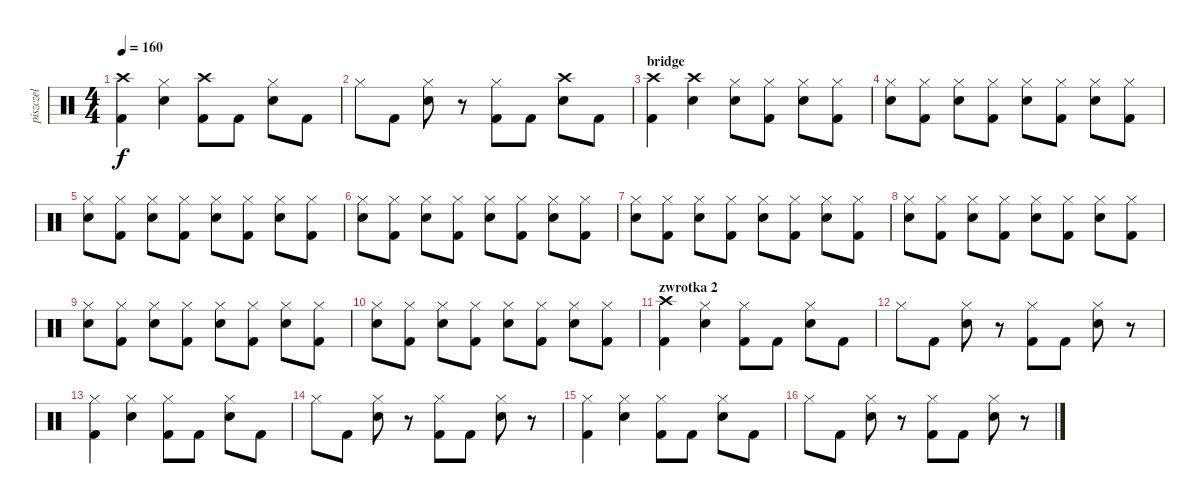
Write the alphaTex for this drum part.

\track ("piszczel" "piszczel") {instrument percussion}
\staff {score}
\articulation defaults
\ts (4 4)
\tempo 160
\clef neutral
\ks c
("Crash high (hit)" "Kick (hit) 2").4{dy f} ("Hi-Hat (closed)" "Snare (hit) 2").4 ("Crash high (hit)" "Kick (hit) 2").8 "Kick (hit) 2".8 ("Hi-Hat (closed)" "Snare (hit) 2").8 "Kick (hit) 2".8 |
"Hi-Hat (closed)".8 "Kick (hit) 2".8 ("Hi-Hat (closed)" "Snare (hit) 2").8 r.8 ("Hi-Hat (closed)" "Kick (hit) 2").8 "Kick (hit) 2".8 ("Crash high (hit)" "Snare (hit) 2").8 "Kick (hit) 2".8 |
\section ("" "bridge")
("Crash high (hit)" "Kick (hit) 2").4 ("Crash high (hit)" "Snare (hit) 2").4 ("Hi-Hat (closed)" "Snare (hit) 2").8 ("Hi-Hat (closed)" "Kick (hit) 2").8 ("Hi-Hat (closed)" "Snare (hit) 2").8 ("Hi-Hat (closed)" "Kick (hit) 2").8 |
("Hi-Hat (closed)" "Snare (hit) 2").8 ("Hi-Hat (closed)" "Kick (hit) 2").8 ("Hi-Hat (closed)" "Snare (hit) 2").8 ("Hi-Hat (closed)" "Kick (hit) 2").8 ("Hi-Hat (closed)" "Snare (hit) 2").8 ("Hi-Hat (closed)" "Kick (hit) 2").8 ("Hi-Hat (closed)" "Snare (hit) 2").8 ("Hi-Hat (closed)" "Kick (hit) 2").8 |
("Hi-Hat (closed)" "Snare (hit) 2").8 ("Hi-Hat (closed)" "Kick (hit) 2").8 ("Hi-Hat (closed)" "Snare (hit) 2").8 ("Hi-Hat (closed)" "Kick (hit) 2").8 ("Hi-Hat (closed)" "Snare (hit) 2").8 ("Hi-Hat (closed)" "Kick (hit) 2").8 ("Hi-Hat (closed)" "Snare (hit) 2").8 ("Hi-Hat (closed)" "Kick (hit) 2").8 |
("Hi-Hat (closed)" "Snare (hit) 2").8 ("Hi-Hat (closed)" "Kick (hit) 2").8 ("Hi-Hat (closed)" "Snare (hit) 2").8 ("Hi-Hat (closed)" "Kick (hit) 2").8 ("Hi-Hat (closed)" "Snare (hit) 2").8 ("Hi-Hat (closed)" "Kick (hit) 2").8 ("Hi-Hat (closed)" "Snare (hit) 2").8 ("Hi-Hat (closed)" "Kick (hit) 2").8 |
("Hi-Hat (closed)" "Snare (hit) 2").8 ("Hi-Hat (closed)" "Kick (hit) 2").8 ("Hi-Hat (closed)" "Snare (hit) 2").8 ("Hi-Hat (closed)" "Kick (hit) 2").8 ("Hi-Hat (closed)" "Snare (hit) 2").8 ("Hi-Hat (closed)" "Kick (hit) 2").8 ("Hi-Hat (closed)" "Snare (hit) 2").8 ("Hi-Hat (closed)" "Kick (hit) 2").8 |
("Hi-Hat (closed)" "Snare (hit) 2").8 ("Hi-Hat (closed)" "Kick (hit) 2").8 ("Hi-Hat (closed)" "Snare (hit) 2").8 ("Hi-Hat (closed)" "Kick (hit) 2").8 ("Hi-Hat (closed)" "Snare (hit) 2").8 ("Hi-Hat (closed)" "Kick (hit) 2").8 ("Hi-Hat (closed)" "Snare (hit) 2").8 ("Hi-Hat (closed)" "Kick (hit) 2").8 |
("Hi-Hat (closed)" "Snare (hit) 2").8 ("Hi-Hat (closed)" "Kick (hit) 2").8 ("Hi-Hat (closed)" "Snare (hit) 2").8 ("Hi-Hat (closed)" "Kick (hit) 2").8 ("Hi-Hat (closed)" "Snare (hit) 2").8 ("Hi-Hat (closed)" "Kick (hit) 2").8 ("Hi-Hat (closed)" "Snare (hit) 2").8 ("Hi-Hat (closed)" "Kick (hit) 2").8 |
("Hi-Hat (closed)" "Snare (hit) 2").8 ("Hi-Hat (closed)" "Kick (hit) 2").8 ("Hi-Hat (closed)" "Snare (hit) 2").8 ("Hi-Hat (closed)" "Kick (hit) 2").8 ("Hi-Hat (closed)" "Snare (hit) 2").8 ("Hi-Hat (closed)" "Kick (hit) 2").8 ("Hi-Hat (closed)" "Snare (hit) 2").8 ("Hi-Hat (closed)" "Kick (hit) 2").8 |
\section ("" "zwrotka 2")
("Crash high (hit)" "Kick (hit) 2").4 ("Hi-Hat (closed)" "Snare (hit) 2").4 ("Hi-Hat (closed)" "Kick (hit) 2").8 "Kick (hit) 2".8 ("Hi-Hat (closed)" "Snare (hit) 2").8 "Kick (hit) 2".8 |
"Hi-Hat (closed)".8 "Kick (hit) 2".8 ("Hi-Hat (closed)" "Snare (hit) 2").8 r.8 ("Hi-Hat (closed)" "Kick (hit) 2").8 "Kick (hit) 2".8 ("Hi-Hat (closed)" "Snare (hit) 2").8 r.8 |
("Hi-Hat (closed)" "Kick (hit) 2").4 ("Hi-Hat (closed)" "Snare (hit) 2").4 ("Hi-Hat (closed)" "Kick (hit) 2").8 "Kick (hit) 2".8 ("Hi-Hat (closed)" "Snare (hit) 2").8 "Kick (hit) 2".8 |
"Hi-Hat (closed)".8 "Kick (hit) 2".8 ("Hi-Hat (closed)" "Snare (hit) 2").8 r.8 ("Hi-Hat (closed)" "Kick (hit) 2").8 "Kick (hit) 2".8 ("Hi-Hat (closed)" "Snare (hit) 2").8 r.8 |
("Hi-Hat (closed)" "Kick (hit) 2").4 ("Hi-Hat (closed)" "Snare (hit) 2").4 ("Hi-Hat (closed)" "Kick (hit) 2").8 "Kick (hit) 2".8 ("Hi-Hat (closed)" "Snare (hit) 2").8 "Kick (hit) 2".8 |
"Hi-Hat (closed)".8 "Kick (hit) 2".8 ("Hi-Hat (closed)" "Snare (hit) 2").8 r.8 ("Hi-Hat (closed)" "Kick (hit) 2").8 "Kick (hit) 2".8 ("Hi-Hat (closed)" "Snare (hit) 2").8 r.8
